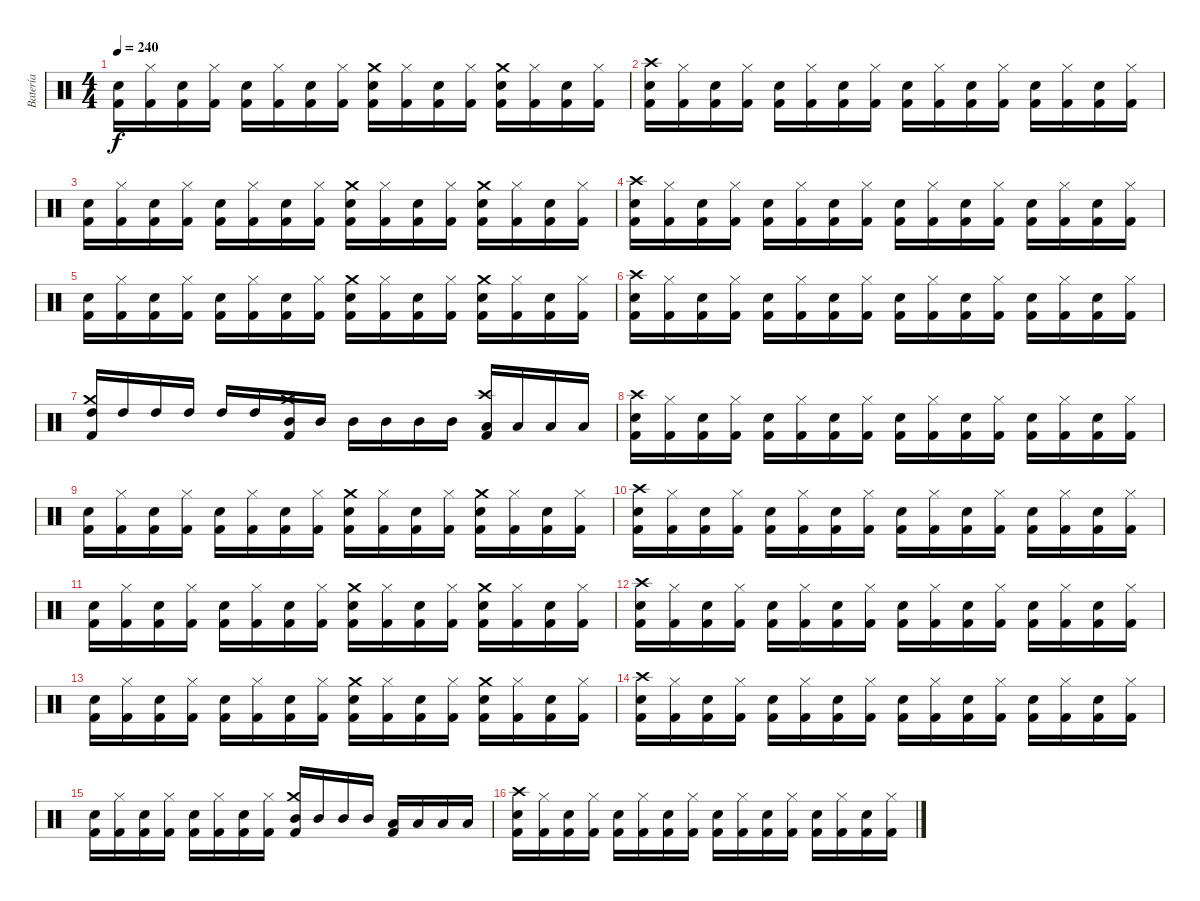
\track ("Batería" "Batería") {instrument percussion}
\staff {score}
\articulation defaults
\ts (4 4)
\tempo 240
\clef neutral
\ks c
("Kick (hit) 2" "Electric Snare (hit)").16{dy f} ("Kick (hit) 2" "Hi-Hat (closed)").16 ("Kick (hit) 2" "Electric Snare (hit)").16 ("Kick (hit) 2" "Hi-Hat (closed)").16 ("Kick (hit) 2" "Electric Snare (hit)").16 ("Kick (hit) 2" "Hi-Hat (closed)").16 ("Kick (hit) 2" "Electric Snare (hit)").16 ("Kick (hit) 2" "Hi-Hat (closed)").16 ("Crash medium (hit)" "Kick (hit) 2" "Electric Snare (hit)").16 ("Kick (hit) 2" "Hi-Hat (closed)").16 ("Kick (hit) 2" "Electric Snare (hit)").16 ("Kick (hit) 2" "Hi-Hat (closed)").16 ("Crash medium (hit)" "Kick (hit) 2" "Electric Snare (hit)").16 ("Kick (hit) 2" "Hi-Hat (closed)").16 ("Kick (hit) 2" "Electric Snare (hit)").16 ("Kick (hit) 2" "Hi-Hat (closed)").16 |
("Crash high (hit)" "Kick (hit) 2" "Electric Snare (hit)").16 ("Kick (hit) 2" "Hi-Hat (closed)").16 ("Kick (hit) 2" "Electric Snare (hit)").16 ("Kick (hit) 2" "Hi-Hat (closed)").16 ("Kick (hit) 2" "Electric Snare (hit)").16 ("Kick (hit) 2" "Hi-Hat (closed)").16 ("Kick (hit) 2" "Electric Snare (hit)").16 ("Kick (hit) 2" "Hi-Hat (closed)").16 ("Kick (hit) 2" "Electric Snare (hit)").16 ("Kick (hit) 2" "Hi-Hat (closed)").16 ("Kick (hit) 2" "Electric Snare (hit)").16 ("Kick (hit) 2" "Hi-Hat (closed)").16 ("Kick (hit) 2" "Electric Snare (hit)").16 ("Kick (hit) 2" "Hi-Hat (closed)").16 ("Kick (hit) 2" "Electric Snare (hit)").16 ("Kick (hit) 2" "Hi-Hat (closed)").16 |
("Kick (hit) 2" "Electric Snare (hit)").16 ("Kick (hit) 2" "Hi-Hat (closed)").16 ("Kick (hit) 2" "Electric Snare (hit)").16 ("Kick (hit) 2" "Hi-Hat (closed)").16 ("Kick (hit) 2" "Electric Snare (hit)").16 ("Kick (hit) 2" "Hi-Hat (closed)").16 ("Kick (hit) 2" "Electric Snare (hit)").16 ("Kick (hit) 2" "Hi-Hat (closed)").16 ("Crash medium (hit)" "Kick (hit) 2" "Electric Snare (hit)").16 ("Kick (hit) 2" "Hi-Hat (closed)").16 ("Kick (hit) 2" "Electric Snare (hit)").16 ("Kick (hit) 2" "Hi-Hat (closed)").16 ("Crash medium (hit)" "Kick (hit) 2" "Electric Snare (hit)").16 ("Kick (hit) 2" "Hi-Hat (closed)").16 ("Kick (hit) 2" "Electric Snare (hit)").16 ("Kick (hit) 2" "Hi-Hat (closed)").16 |
("Crash high (hit)" "Kick (hit) 2" "Electric Snare (hit)").16 ("Kick (hit) 2" "Hi-Hat (closed)").16 ("Kick (hit) 2" "Electric Snare (hit)").16 ("Kick (hit) 2" "Hi-Hat (closed)").16 ("Kick (hit) 2" "Electric Snare (hit)").16 ("Kick (hit) 2" "Hi-Hat (closed)").16 ("Kick (hit) 2" "Electric Snare (hit)").16 ("Kick (hit) 2" "Hi-Hat (closed)").16 ("Kick (hit) 2" "Electric Snare (hit)").16 ("Kick (hit) 2" "Hi-Hat (closed)").16 ("Kick (hit) 2" "Electric Snare (hit)").16 ("Kick (hit) 2" "Hi-Hat (closed)").16 ("Kick (hit) 2" "Electric Snare (hit)").16 ("Kick (hit) 2" "Hi-Hat (closed)").16 ("Kick (hit) 2" "Electric Snare (hit)").16 ("Kick (hit) 2" "Hi-Hat (closed)").16 |
("Kick (hit) 2" "Electric Snare (hit)").16 ("Kick (hit) 2" "Hi-Hat (closed)").16 ("Kick (hit) 2" "Electric Snare (hit)").16 ("Kick (hit) 2" "Hi-Hat (closed)").16 ("Kick (hit) 2" "Electric Snare (hit)").16 ("Kick (hit) 2" "Hi-Hat (closed)").16 ("Kick (hit) 2" "Electric Snare (hit)").16 ("Kick (hit) 2" "Hi-Hat (closed)").16 ("Crash medium (hit)" "Kick (hit) 2" "Electric Snare (hit)").16 ("Kick (hit) 2" "Hi-Hat (closed)").16 ("Kick (hit) 2" "Electric Snare (hit)").16 ("Kick (hit) 2" "Hi-Hat (closed)").16 ("Crash medium (hit)" "Kick (hit) 2" "Electric Snare (hit)").16 ("Kick (hit) 2" "Hi-Hat (closed)").16 ("Kick (hit) 2" "Electric Snare (hit)").16 ("Kick (hit) 2" "Hi-Hat (closed)").16 |
("Crash high (hit)" "Kick (hit) 2" "Electric Snare (hit)").16 ("Kick (hit) 2" "Hi-Hat (closed)").16 ("Kick (hit) 2" "Electric Snare (hit)").16 ("Kick (hit) 2" "Hi-Hat (closed)").16 ("Kick (hit) 2" "Electric Snare (hit)").16 ("Kick (hit) 2" "Hi-Hat (closed)").16 ("Kick (hit) 2" "Electric Snare (hit)").16 ("Kick (hit) 2" "Hi-Hat (closed)").16 ("Kick (hit) 2" "Electric Snare (hit)").16 ("Kick (hit) 2" "Hi-Hat (closed)").16 ("Kick (hit) 2" "Electric Snare (hit)").16 ("Kick (hit) 2" "Hi-Hat (closed)").16 ("Kick (hit) 2" "Electric Snare (hit)").16 ("Kick (hit) 2" "Hi-Hat (closed)").16 ("Kick (hit) 2" "Electric Snare (hit)").16 ("Kick (hit) 2" "Hi-Hat (closed)").16 |
("Crash medium (hit)" "Kick (hit) 2" "High Tom (hit)").16 "High Tom (hit)".16 "High Tom (hit)".16 "High Tom (hit)".16 "High Tom (hit)".16 "High Tom (hit)".16 ("Crash medium (hit)" "Kick (hit) 2" "Mid Tom (hit)").16 "Mid Tom (hit)".16 "Mid Tom (hit)".16 "Mid Tom (hit)".16 "Mid Tom (hit)".16 "Mid Tom (hit)".16 ("Crash high (hit)" "Kick (hit) 2" "Low Tom (hit)").16 "Low Tom (hit)".16 "Low Tom (hit)".16 "Low Tom (hit)".16 |
("Crash high (hit)" "Kick (hit) 2" "Electric Snare (hit)").16 ("Kick (hit) 2" "Hi-Hat (closed)").16 ("Kick (hit) 2" "Electric Snare (hit)").16 ("Kick (hit) 2" "Hi-Hat (closed)").16 ("Kick (hit) 2" "Electric Snare (hit)").16 ("Kick (hit) 2" "Hi-Hat (closed)").16 ("Kick (hit) 2" "Electric Snare (hit)").16 ("Kick (hit) 2" "Hi-Hat (closed)").16 ("Kick (hit) 2" "Electric Snare (hit)").16 ("Kick (hit) 2" "Hi-Hat (closed)").16 ("Kick (hit) 2" "Electric Snare (hit)").16 ("Kick (hit) 2" "Hi-Hat (closed)").16 ("Kick (hit) 2" "Electric Snare (hit)").16 ("Kick (hit) 2" "Hi-Hat (closed)").16 ("Kick (hit) 2" "Electric Snare (hit)").16 ("Kick (hit) 2" "Hi-Hat (closed)").16 |
("Kick (hit) 2" "Electric Snare (hit)").16 ("Kick (hit) 2" "Hi-Hat (closed)").16 ("Kick (hit) 2" "Electric Snare (hit)").16 ("Kick (hit) 2" "Hi-Hat (closed)").16 ("Kick (hit) 2" "Electric Snare (hit)").16 ("Kick (hit) 2" "Hi-Hat (closed)").16 ("Kick (hit) 2" "Electric Snare (hit)").16 ("Kick (hit) 2" "Hi-Hat (closed)").16 ("Crash medium (hit)" "Kick (hit) 2" "Electric Snare (hit)").16 ("Kick (hit) 2" "Hi-Hat (closed)").16 ("Kick (hit) 2" "Electric Snare (hit)").16 ("Kick (hit) 2" "Hi-Hat (closed)").16 ("Crash medium (hit)" "Kick (hit) 2" "Electric Snare (hit)").16 ("Kick (hit) 2" "Hi-Hat (closed)").16 ("Kick (hit) 2" "Electric Snare (hit)").16 ("Kick (hit) 2" "Hi-Hat (closed)").16 |
("Crash high (hit)" "Kick (hit) 2" "Electric Snare (hit)").16 ("Kick (hit) 2" "Hi-Hat (closed)").16 ("Kick (hit) 2" "Electric Snare (hit)").16 ("Kick (hit) 2" "Hi-Hat (closed)").16 ("Kick (hit) 2" "Electric Snare (hit)").16 ("Kick (hit) 2" "Hi-Hat (closed)").16 ("Kick (hit) 2" "Electric Snare (hit)").16 ("Kick (hit) 2" "Hi-Hat (closed)").16 ("Kick (hit) 2" "Electric Snare (hit)").16 ("Kick (hit) 2" "Hi-Hat (closed)").16 ("Kick (hit) 2" "Electric Snare (hit)").16 ("Kick (hit) 2" "Hi-Hat (closed)").16 ("Kick (hit) 2" "Electric Snare (hit)").16 ("Kick (hit) 2" "Hi-Hat (closed)").16 ("Kick (hit) 2" "Electric Snare (hit)").16 ("Kick (hit) 2" "Hi-Hat (closed)").16 |
("Kick (hit) 2" "Electric Snare (hit)").16 ("Kick (hit) 2" "Hi-Hat (closed)").16 ("Kick (hit) 2" "Electric Snare (hit)").16 ("Kick (hit) 2" "Hi-Hat (closed)").16 ("Kick (hit) 2" "Electric Snare (hit)").16 ("Kick (hit) 2" "Hi-Hat (closed)").16 ("Kick (hit) 2" "Electric Snare (hit)").16 ("Kick (hit) 2" "Hi-Hat (closed)").16 ("Crash medium (hit)" "Kick (hit) 2" "Electric Snare (hit)").16 ("Kick (hit) 2" "Hi-Hat (closed)").16 ("Kick (hit) 2" "Electric Snare (hit)").16 ("Kick (hit) 2" "Hi-Hat (closed)").16 ("Crash medium (hit)" "Kick (hit) 2" "Electric Snare (hit)").16 ("Kick (hit) 2" "Hi-Hat (closed)").16 ("Kick (hit) 2" "Electric Snare (hit)").16 ("Kick (hit) 2" "Hi-Hat (closed)").16 |
("Crash high (hit)" "Kick (hit) 2" "Electric Snare (hit)").16 ("Kick (hit) 2" "Hi-Hat (closed)").16 ("Kick (hit) 2" "Electric Snare (hit)").16 ("Kick (hit) 2" "Hi-Hat (closed)").16 ("Kick (hit) 2" "Electric Snare (hit)").16 ("Kick (hit) 2" "Hi-Hat (closed)").16 ("Kick (hit) 2" "Electric Snare (hit)").16 ("Kick (hit) 2" "Hi-Hat (closed)").16 ("Kick (hit) 2" "Electric Snare (hit)").16 ("Kick (hit) 2" "Hi-Hat (closed)").16 ("Kick (hit) 2" "Electric Snare (hit)").16 ("Kick (hit) 2" "Hi-Hat (closed)").16 ("Kick (hit) 2" "Electric Snare (hit)").16 ("Kick (hit) 2" "Hi-Hat (closed)").16 ("Kick (hit) 2" "Electric Snare (hit)").16 ("Kick (hit) 2" "Hi-Hat (closed)").16 |
("Kick (hit) 2" "Electric Snare (hit)").16 ("Kick (hit) 2" "Hi-Hat (closed)").16 ("Kick (hit) 2" "Electric Snare (hit)").16 ("Kick (hit) 2" "Hi-Hat (closed)").16 ("Kick (hit) 2" "Electric Snare (hit)").16 ("Kick (hit) 2" "Hi-Hat (closed)").16 ("Kick (hit) 2" "Electric Snare (hit)").16 ("Kick (hit) 2" "Hi-Hat (closed)").16 ("Crash medium (hit)" "Kick (hit) 2" "Electric Snare (hit)").16 ("Kick (hit) 2" "Hi-Hat (closed)").16 ("Kick (hit) 2" "Electric Snare (hit)").16 ("Kick (hit) 2" "Hi-Hat (closed)").16 ("Crash medium (hit)" "Kick (hit) 2" "Electric Snare (hit)").16 ("Kick (hit) 2" "Hi-Hat (closed)").16 ("Kick (hit) 2" "Electric Snare (hit)").16 ("Kick (hit) 2" "Hi-Hat (closed)").16 |
("Crash high (hit)" "Kick (hit) 2" "Electric Snare (hit)").16 ("Kick (hit) 2" "Hi-Hat (closed)").16 ("Kick (hit) 2" "Electric Snare (hit)").16 ("Kick (hit) 2" "Hi-Hat (closed)").16 ("Kick (hit) 2" "Electric Snare (hit)").16 ("Kick (hit) 2" "Hi-Hat (closed)").16 ("Kick (hit) 2" "Electric Snare (hit)").16 ("Kick (hit) 2" "Hi-Hat (closed)").16 ("Kick (hit) 2" "Electric Snare (hit)").16 ("Kick (hit) 2" "Hi-Hat (closed)").16 ("Kick (hit) 2" "Electric Snare (hit)").16 ("Kick (hit) 2" "Hi-Hat (closed)").16 ("Kick (hit) 2" "Electric Snare (hit)").16 ("Kick (hit) 2" "Hi-Hat (closed)").16 ("Kick (hit) 2" "Electric Snare (hit)").16 ("Kick (hit) 2" "Hi-Hat (closed)").16 |
("Kick (hit) 2" "Electric Snare (hit)").16 ("Kick (hit) 2" "Hi-Hat (closed)").16 ("Kick (hit) 2" "Electric Snare (hit)").16 ("Kick (hit) 2" "Hi-Hat (closed)").16 ("Kick (hit) 2" "Electric Snare (hit)").16 ("Kick (hit) 2" "Hi-Hat (closed)").16 ("Kick (hit) 2" "Electric Snare (hit)").16 ("Kick (hit) 2" "Hi-Hat (closed)").16 ("Crash medium (hit)" "Kick (hit) 2" "Mid Tom (hit)").16 "Mid Tom (hit)".16 "Mid Tom (hit)".16 "Mid Tom (hit)".16 ("Kick (hit) 2" "Low Tom (hit)").16 "Low Tom (hit)".16 "Low Tom (hit)".16 "Low Tom (hit)".16 |
("Crash high (hit)" "Kick (hit) 2" "Electric Snare (hit)").16 ("Kick (hit) 2" "Hi-Hat (closed)").16 ("Kick (hit) 2" "Electric Snare (hit)").16 ("Kick (hit) 2" "Hi-Hat (closed)").16 ("Kick (hit) 2" "Electric Snare (hit)").16 ("Kick (hit) 2" "Hi-Hat (closed)").16 ("Kick (hit) 2" "Electric Snare (hit)").16 ("Kick (hit) 2" "Hi-Hat (closed)").16 ("Kick (hit) 2" "Electric Snare (hit)").16 ("Kick (hit) 2" "Hi-Hat (closed)").16 ("Kick (hit) 2" "Electric Snare (hit)").16 ("Kick (hit) 2" "Hi-Hat (closed)").16 ("Kick (hit) 2" "Electric Snare (hit)").16 ("Kick (hit) 2" "Hi-Hat (closed)").16 ("Kick (hit) 2" "Electric Snare (hit)").16 ("Kick (hit) 2" "Hi-Hat (closed)").16
